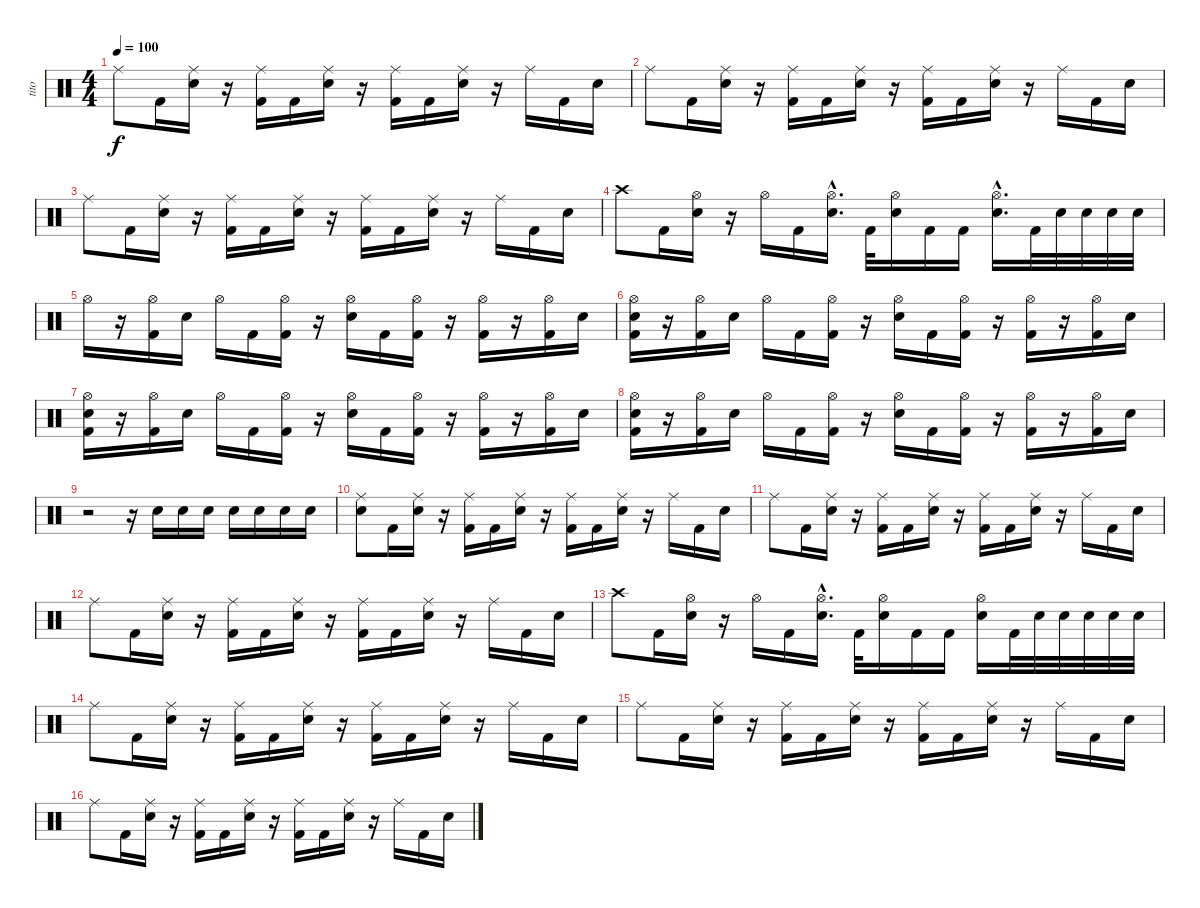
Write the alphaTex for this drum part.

\track ("tito" "tito") {instrument percussion}
\staff {score}
\articulation defaults
\ts (4 4)
\tempo 100
\clef neutral
\ks c "Ride (middle)".8{dy f} "Kick (hit) 2".16
("Ride (middle)" "Snare (hit) 2").16 r.16 ("Ride (middle)" "Kick (hit) 2").16 "Kick (hit) 2".16 ("Ride (middle)" "Snare (hit) 2").16 r.16 ("Ride (middle)" "Kick (hit) 2").16 "Kick (hit) 2".16 ("Ride (middle)" "Snare (hit) 2").16 r.16 "Ride (middle)".16 "Kick (hit) 2".16 "Snare (hit) 2".16 |
"Ride (middle)".8 "Kick (hit) 2".16 ("Ride (middle)" "Snare (hit) 2").16 r.16 ("Ride (middle)" "Kick (hit) 2").16 "Kick (hit) 2".16 ("Ride (middle)" "Snare (hit) 2").16 r.16 ("Ride (middle)" "Kick (hit) 2").16 "Kick (hit) 2".16 ("Ride (middle)" "Snare (hit) 2").16 r.16 "Ride (middle)".16 "Kick (hit) 2".16 "Snare (hit) 2".16 |
"Ride (middle)".8 "Kick (hit) 2".16 ("Ride (middle)" "Snare (hit) 2").16 r.16 ("Ride (middle)" "Kick (hit) 2").16 "Kick (hit) 2".16 ("Ride (middle)" "Snare (hit) 2").16 r.16 ("Ride (middle)" "Kick (hit) 2").16 "Kick (hit) 2".16 ("Ride (middle)" "Snare (hit) 2").16 r.16 "Ride (middle)".16 "Kick (hit) 2".16 "Snare (hit) 2".16 |
"Crash high (hit)".8 "Kick (hit) 2".16 ("Hi-Hat (open)" "Snare (hit) 2").16 r.16 "Hi-Hat (open)".16 "Kick (hit) 2".16 ("Hi-Hat (open)"{hac} "Snare (hit) 2"{hac}).16{d} "Kick (hit) 2".32 ("Hi-Hat (open)" "Snare (hit) 2").16 "Kick (hit) 2".16 "Kick (hit) 2".16 ("Hi-Hat (open)"{hac} "Snare (hit) 2"{hac}).16{d} "Kick (hit) 2".32 "Snare (hit) 2".32 "Snare (hit) 2".32 "Snare (hit) 2".32 "Snare (hit) 2".32 |
"Hi-Hat (open)".16 r.16 ("Hi-Hat (open)" "Kick (hit) 2").16 "Snare (hit) 2".16 "Hi-Hat (open)".16 "Kick (hit) 2".16 ("Hi-Hat (open)" "Kick (hit) 2").16 r.16 ("Hi-Hat (open)" "Snare (hit) 2").16 "Kick (hit) 2".16 ("Hi-Hat (open)" "Kick (hit) 2").16 r.16 ("Hi-Hat (open)" "Kick (hit) 2").16 r.16 ("Hi-Hat (open)" "Kick (hit) 2").16 "Snare (hit) 2".16 |
("Hi-Hat (open)" "Kick (hit) 2" "Snare (hit) 2").16 r.16 ("Hi-Hat (open)" "Kick (hit) 2").16 "Snare (hit) 2".16 "Hi-Hat (open)".16 "Kick (hit) 2".16 ("Hi-Hat (open)" "Kick (hit) 2").16 r.16 ("Hi-Hat (open)" "Snare (hit) 2").16 "Kick (hit) 2".16 ("Hi-Hat (open)" "Kick (hit) 2").16 r.16 ("Hi-Hat (open)" "Kick (hit) 2").16 r.16 ("Hi-Hat (open)" "Kick (hit) 2").16 "Snare (hit) 2".16 |
("Hi-Hat (open)" "Kick (hit) 2" "Snare (hit) 2").16 r.16 ("Hi-Hat (open)" "Kick (hit) 2").16 "Snare (hit) 2".16 "Hi-Hat (open)".16 "Kick (hit) 2".16 ("Hi-Hat (open)" "Kick (hit) 2").16 r.16 ("Hi-Hat (open)" "Snare (hit) 2").16 "Kick (hit) 2".16 ("Hi-Hat (open)" "Kick (hit) 2").16 r.16 ("Hi-Hat (open)" "Kick (hit) 2").16 r.16 ("Hi-Hat (open)" "Kick (hit) 2").16 "Snare (hit) 2".16 |
("Hi-Hat (open)" "Kick (hit) 2" "Snare (hit) 2").16 r.16 ("Hi-Hat (open)" "Kick (hit) 2").16 "Snare (hit) 2".16 "Hi-Hat (open)".16 "Kick (hit) 2".16 ("Hi-Hat (open)" "Kick (hit) 2").16 r.16 ("Hi-Hat (open)" "Snare (hit) 2").16 "Kick (hit) 2".16 ("Hi-Hat (open)" "Kick (hit) 2").16 r.16 ("Hi-Hat (open)" "Kick (hit) 2").16 r.16 ("Hi-Hat (open)" "Kick (hit) 2").16 "Snare (hit) 2".16 |
r.2 r.16 "Snare (hit) 2".16 "Snare (hit) 2".16 "Snare (hit) 2".16 "Snare (hit) 2".16 "Snare (hit) 2".16 "Snare (hit) 2".16 "Snare (hit) 2".16 |
("Ride (middle)" "Snare (hit) 2").8 "Kick (hit) 2".16 ("Ride (middle)" "Snare (hit) 2").16 r.16 ("Ride (middle)" "Kick (hit) 2").16 "Kick (hit) 2".16 ("Ride (middle)" "Snare (hit) 2").16 r.16 ("Ride (middle)" "Kick (hit) 2").16 "Kick (hit) 2".16 ("Ride (middle)" "Snare (hit) 2").16 r.16 "Ride (middle)".16 "Kick (hit) 2".16 "Snare (hit) 2".16 |
"Ride (middle)".8 "Kick (hit) 2".16 ("Ride (middle)" "Snare (hit) 2").16 r.16 ("Ride (middle)" "Kick (hit) 2").16 "Kick (hit) 2".16 ("Ride (middle)" "Snare (hit) 2").16 r.16 ("Ride (middle)" "Kick (hit) 2").16 "Kick (hit) 2".16 ("Ride (middle)" "Snare (hit) 2").16 r.16 "Ride (middle)".16 "Kick (hit) 2".16 "Snare (hit) 2".16 |
"Ride (middle)".8 "Kick (hit) 2".16 ("Ride (middle)" "Snare (hit) 2").16 r.16 ("Ride (middle)" "Kick (hit) 2").16 "Kick (hit) 2".16 ("Ride (middle)" "Snare (hit) 2").16 r.16 ("Ride (middle)" "Kick (hit) 2").16 "Kick (hit) 2".16 ("Ride (middle)" "Snare (hit) 2").16 r.16 "Ride (middle)".16 "Kick (hit) 2".16 "Snare (hit) 2".16 |
"Crash high (hit)".8 "Kick (hit) 2".16 ("Hi-Hat (open)" "Snare (hit) 2").16 r.16 "Hi-Hat (open)".16 "Kick (hit) 2".16 ("Hi-Hat (open)"{hac} "Snare (hit) 2"{hac}).16{d} "Kick (hit) 2".32 ("Hi-Hat (open)" "Snare (hit) 2").16 "Kick (hit) 2".16 "Kick (hit) 2".16 ("Hi-Hat (open)" "Snare (hit) 2").16 "Kick (hit) 2".32 "Snare (hit) 2".32 "Snare (hit) 2".32 "Snare (hit) 2".32 "Snare (hit) 2".32 "Snare (hit) 2".32 |
"Ride (middle)".8 "Kick (hit) 2".16 ("Ride (middle)" "Snare (hit) 2").16 r.16 ("Ride (middle)" "Kick (hit) 2").16 "Kick (hit) 2".16 ("Ride (middle)" "Snare (hit) 2").16 r.16 ("Ride (middle)" "Kick (hit) 2").16 "Kick (hit) 2".16 ("Ride (middle)" "Snare (hit) 2").16 r.16 "Ride (middle)".16 "Kick (hit) 2".16 "Snare (hit) 2".16 |
"Ride (middle)".8 "Kick (hit) 2".16 ("Ride (middle)" "Snare (hit) 2").16 r.16 ("Ride (middle)" "Kick (hit) 2").16 "Kick (hit) 2".16 ("Ride (middle)" "Snare (hit) 2").16 r.16 ("Ride (middle)" "Kick (hit) 2").16 "Kick (hit) 2".16 ("Ride (middle)" "Snare (hit) 2").16 r.16 "Ride (middle)".16 "Kick (hit) 2".16 "Snare (hit) 2".16 |
"Ride (middle)".8 "Kick (hit) 2".16 ("Ride (middle)" "Snare (hit) 2").16 r.16 ("Ride (middle)" "Kick (hit) 2").16 "Kick (hit) 2".16 ("Ride (middle)" "Snare (hit) 2").16 r.16 ("Ride (middle)" "Kick (hit) 2").16 "Kick (hit) 2".16 ("Ride (middle)" "Snare (hit) 2").16 r.16 "Ride (middle)".16 "Kick (hit) 2".16 "Snare (hit) 2".16
